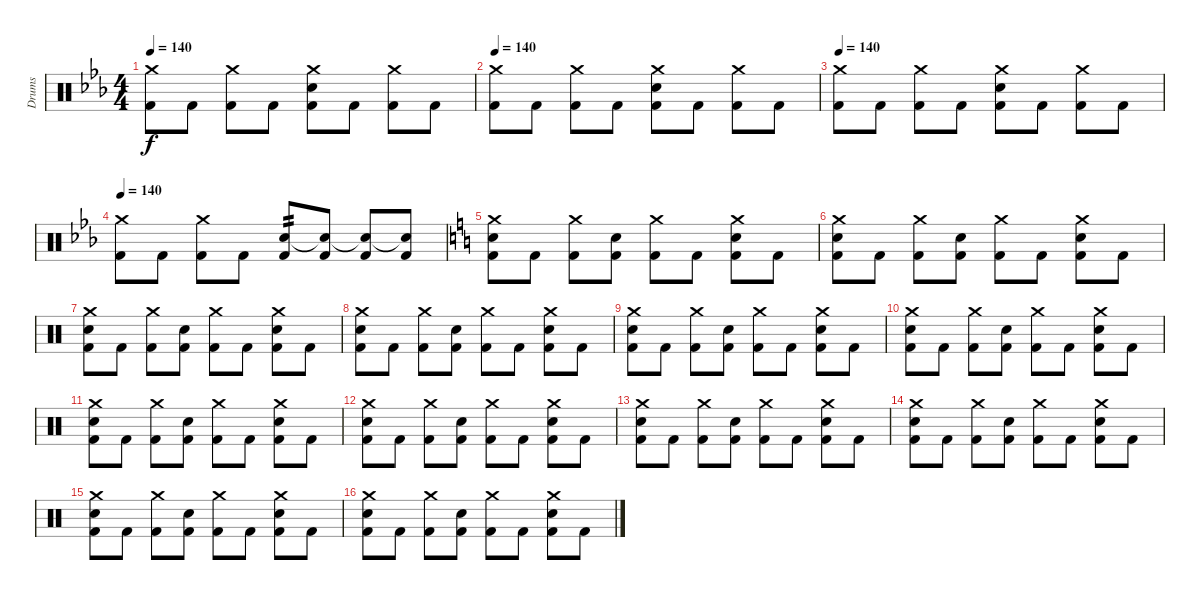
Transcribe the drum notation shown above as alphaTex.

\track ("Drums" "Drums") {instrument percussion}
\staff {score}
\articulation defaults
\ts (4 4)
\tempo 140
\clef neutral
\ks eb
("Crash medium (hit)" "Kick (hit) 2").8{dy f} "Kick (hit) 2".8 ("Crash medium (hit)" "Kick (hit) 2").8 "Kick (hit) 2".8 ("Crash medium (hit)" "Snare (hit) 2" "Kick (hit) 2").8 "Kick (hit) 2".8 ("Crash medium (hit)" "Kick (hit) 2").8 "Kick (hit) 2".8 |
\tempo 140
("Crash medium (hit)" "Kick (hit) 2").8 "Kick (hit) 2".8 ("Crash medium (hit)" "Kick (hit) 2").8 "Kick (hit) 2".8 ("Crash medium (hit)" "Snare (hit) 2" "Kick (hit) 2").8 "Kick (hit) 2".8 ("Crash medium (hit)" "Kick (hit) 2").8 "Kick (hit) 2".8 |
\tempo 140
("Crash medium (hit)" "Kick (hit) 2").8 "Kick (hit) 2".8 ("Crash medium (hit)" "Kick (hit) 2").8 "Kick (hit) 2".8 ("Crash medium (hit)" "Snare (hit) 2" "Kick (hit) 2").8 "Kick (hit) 2".8 ("Crash medium (hit)" "Kick (hit) 2").8 "Kick (hit) 2".8 |
\tempo 140
("Crash medium (hit)" "Kick (hit) 2").8 "Kick (hit) 2".8 ("Crash medium (hit)" "Kick (hit) 2").8 "Kick (hit) 2".8 ("Snare (hit) 2" "Kick (hit) 2").8{tp 2} ("Snare (hit)"{t} "Kick (hit) 2").8 ("Snare (hit)"{t} "Kick (hit) 2").8 ("Snare (hit)"{t} "Kick (hit) 2").8 |
\ks c
("Crash medium (hit)" "Snare (hit) 2" "Kick (hit) 2").8 "Kick (hit) 2".8 ("Crash medium (hit)" "Kick (hit) 2").8 ("Snare (hit) 2" "Kick (hit) 2").8 ("Crash medium (hit)" "Kick (hit) 2").8 "Kick (hit) 2".8 ("Crash medium (hit)" "Snare (hit) 2" "Kick (hit) 2").8 "Kick (hit) 2".8 |
("Crash medium (hit)" "Snare (hit) 2" "Kick (hit) 2").8 "Kick (hit) 2".8 ("Crash medium (hit)" "Kick (hit) 2").8 ("Snare (hit) 2" "Kick (hit) 2").8 ("Crash medium (hit)" "Kick (hit) 2").8 "Kick (hit) 2".8 ("Crash medium (hit)" "Snare (hit) 2" "Kick (hit) 2").8 "Kick (hit) 2".8 |
("Crash medium (hit)" "Snare (hit) 2" "Kick (hit) 2").8 "Kick (hit) 2".8 ("Crash medium (hit)" "Kick (hit) 2").8 ("Snare (hit) 2" "Kick (hit) 2").8 ("Crash medium (hit)" "Kick (hit) 2").8 "Kick (hit) 2".8 ("Crash medium (hit)" "Snare (hit) 2" "Kick (hit) 2").8 "Kick (hit) 2".8 |
("Crash medium (hit)" "Snare (hit) 2" "Kick (hit) 2").8 "Kick (hit) 2".8 ("Crash medium (hit)" "Kick (hit) 2").8 ("Snare (hit) 2" "Kick (hit) 2").8 ("Crash medium (hit)" "Kick (hit) 2").8 "Kick (hit) 2".8 ("Crash medium (hit)" "Snare (hit) 2" "Kick (hit) 2").8 "Kick (hit) 2".8 |
("Crash medium (hit)" "Snare (hit) 2" "Kick (hit) 2").8 "Kick (hit) 2".8 ("Crash medium (hit)" "Kick (hit) 2").8 ("Snare (hit) 2" "Kick (hit) 2").8 ("Crash medium (hit)" "Kick (hit) 2").8 "Kick (hit) 2".8 ("Crash medium (hit)" "Snare (hit) 2" "Kick (hit) 2").8 "Kick (hit) 2".8 |
("Crash medium (hit)" "Snare (hit) 2" "Kick (hit) 2").8 "Kick (hit) 2".8 ("Crash medium (hit)" "Kick (hit) 2").8 ("Snare (hit) 2" "Kick (hit) 2").8 ("Crash medium (hit)" "Kick (hit) 2").8 "Kick (hit) 2".8 ("Crash medium (hit)" "Snare (hit) 2" "Kick (hit) 2").8 "Kick (hit) 2".8 |
("Crash medium (hit)" "Snare (hit) 2" "Kick (hit) 2").8 "Kick (hit) 2".8 ("Crash medium (hit)" "Kick (hit) 2").8 ("Snare (hit) 2" "Kick (hit) 2").8 ("Crash medium (hit)" "Kick (hit) 2").8 "Kick (hit) 2".8 ("Crash medium (hit)" "Snare (hit) 2" "Kick (hit) 2").8 "Kick (hit) 2".8 |
("Crash medium (hit)" "Snare (hit) 2" "Kick (hit) 2").8 "Kick (hit) 2".8 ("Crash medium (hit)" "Kick (hit) 2").8 ("Snare (hit) 2" "Kick (hit) 2").8 ("Crash medium (hit)" "Kick (hit) 2").8 "Kick (hit) 2".8 ("Crash medium (hit)" "Snare (hit) 2" "Kick (hit) 2").8 "Kick (hit) 2".8 |
("Crash medium (hit)" "Snare (hit) 2" "Kick (hit) 2").8 "Kick (hit) 2".8 ("Crash medium (hit)" "Kick (hit) 2").8 ("Snare (hit) 2" "Kick (hit) 2").8 ("Crash medium (hit)" "Kick (hit) 2").8 "Kick (hit) 2".8 ("Crash medium (hit)" "Snare (hit) 2" "Kick (hit) 2").8 "Kick (hit) 2".8 |
("Crash medium (hit)" "Snare (hit) 2" "Kick (hit) 2").8 "Kick (hit) 2".8 ("Crash medium (hit)" "Kick (hit) 2").8 ("Snare (hit) 2" "Kick (hit) 2").8 ("Crash medium (hit)" "Kick (hit) 2").8 "Kick (hit) 2".8 ("Crash medium (hit)" "Snare (hit) 2" "Kick (hit) 2").8 "Kick (hit) 2".8 |
("Crash medium (hit)" "Snare (hit) 2" "Kick (hit) 2").8 "Kick (hit) 2".8 ("Crash medium (hit)" "Kick (hit) 2").8 ("Snare (hit) 2" "Kick (hit) 2").8 ("Crash medium (hit)" "Kick (hit) 2").8 "Kick (hit) 2".8 ("Crash medium (hit)" "Snare (hit) 2" "Kick (hit) 2").8 "Kick (hit) 2".8 |
("Crash medium (hit)" "Snare (hit) 2" "Kick (hit) 2").8 "Kick (hit) 2".8 ("Crash medium (hit)" "Kick (hit) 2").8 ("Snare (hit) 2" "Kick (hit) 2").8 ("Crash medium (hit)" "Kick (hit) 2").8 "Kick (hit) 2".8 ("Crash medium (hit)" "Snare (hit) 2" "Kick (hit) 2").8 "Kick (hit) 2".8
